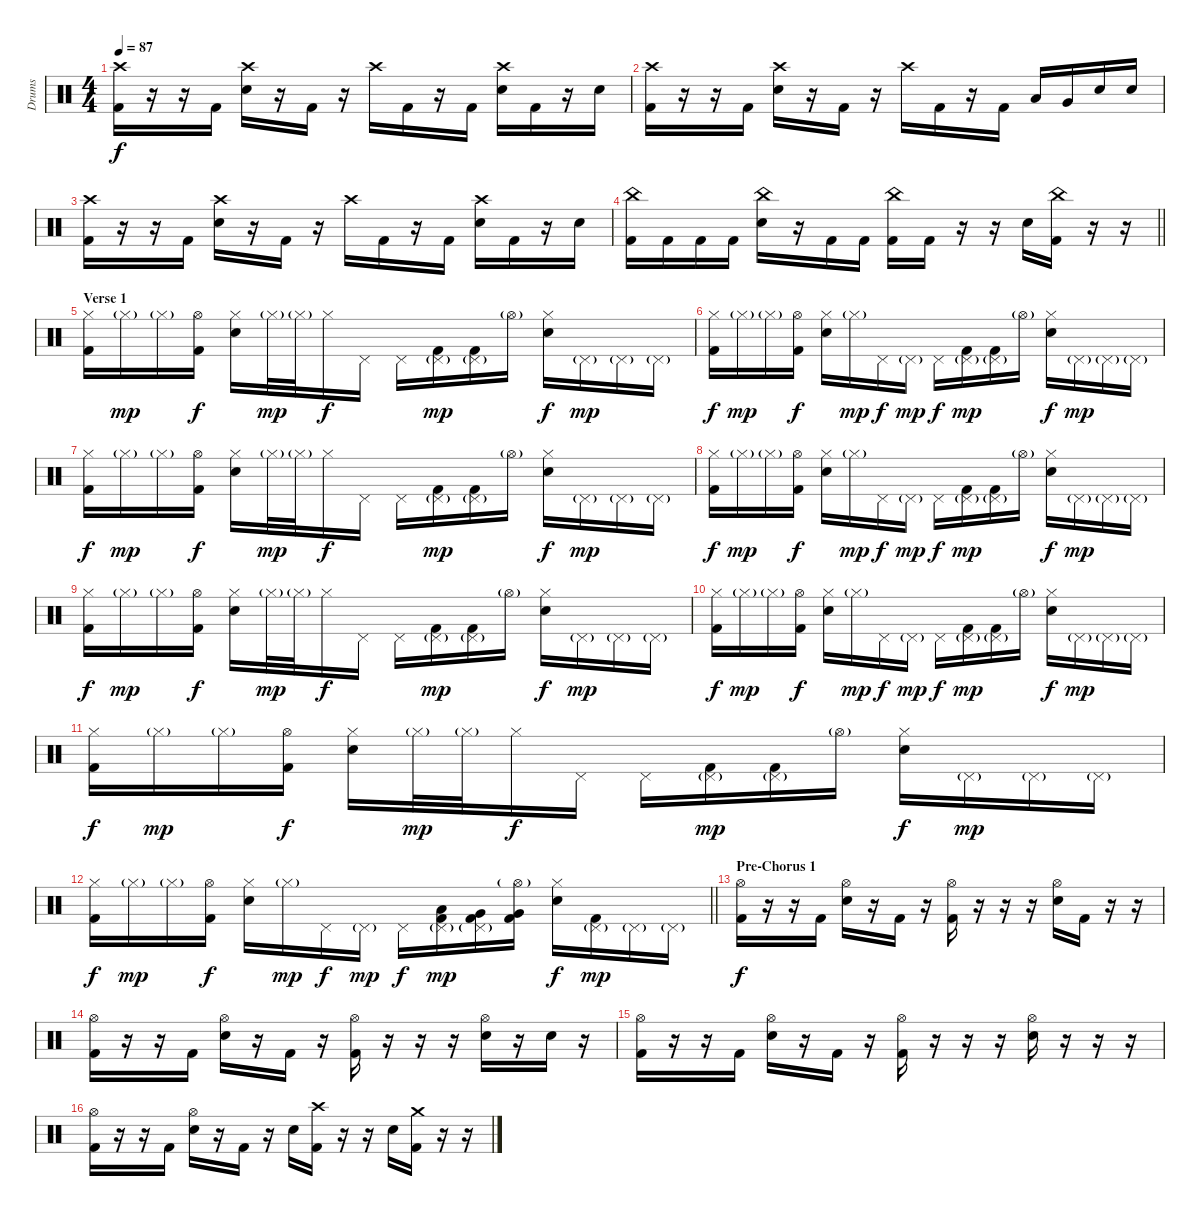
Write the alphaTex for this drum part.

\track ("Drums" "Drums") {instrument percussion}
\staff {score}
\articulation defaults
\ts (4 4)
\tempo 87
\clef neutral
\ks c
("Crash high (hit)" "Kick (hit) 2").16{dy f} r.16 r.16 "Kick (hit) 2".16 ("Crash high (hit)" "Electric Snare (hit)").16 r.16 "Kick (hit) 2".16 r.16 "Crash high (hit)".16 "Kick (hit) 2".16 r.16 "Kick (hit) 2".16 ("Crash high (hit)" "Electric Snare (hit)").16 "Kick (hit) 2".16 r.16 "Electric Snare (hit)".16 |
("Crash high (hit)" "Kick (hit) 2").16 r.16 r.16 "Kick (hit) 2".16 ("Crash high (hit)" "Electric Snare (hit)").16 r.16 "Kick (hit) 2".16 r.16 "Crash high (hit)".16 "Kick (hit) 2".16 r.16 "Kick (hit) 2".16 "Low Tom (hit)".16 "Very Low Tom (hit)".16 "Electric Snare (hit)".16 "Electric Snare (hit)".16 |
("Crash high (hit)" "Kick (hit) 2").16 r.16 r.16 "Kick (hit) 2".16 ("Crash high (hit)" "Electric Snare (hit)").16 r.16 "Kick (hit) 2".16 r.16 "Crash high (hit)".16 "Kick (hit) 2".16 r.16 "Kick (hit) 2".16 ("Crash high (hit)" "Electric Snare (hit)").16 "Kick (hit) 2".16 r.16 "Electric Snare (hit)".16 |
\barLineRight lightlight
("China (hit)" "Kick (hit) 2").16 "Kick (hit) 2".16 "Kick (hit) 2".16 "Kick (hit) 2".16 ("China (hit)" "Electric Snare (hit)").16 r.16 "Kick (hit) 2".16 "Kick (hit) 2".16 ("China (hit)" "Kick (hit) 2").16 "Kick (hit) 2".16 r.16 r.16 "Electric Snare (hit)".16 ("China (hit)" "Kick (hit) 2").16 r.16 r.16 |
\section ("" "Verse 1")
("Hi-Hat (closed)" "Kick (hit) 2").16 "Hi-Hat (closed)"{g}.16{dy mp} "Hi-Hat (closed)"{g}.16 ("Hi-Hat (open)" "Kick (hit) 2").16{dy f} ("Hi-Hat (closed)" "Electric Snare (hit)").16 "Hi-Hat (closed)"{g}.32{dy mp} "Hi-Hat (closed)"{g}.32 "Hi-Hat (closed)".16{dy f} "Pedal Hi-Hat (hit)".16 "Pedal Hi-Hat (hit)".16 ("Pedal Hi-Hat (hit)"{g} "Kick (hit) 2").16{dy mp} ("Pedal Hi-Hat (hit)"{g} "Kick (hit) 2").16 "Hi-Hat (open)"{g}.16 ("Hi-Hat (closed)" "Electric Snare (hit)").16{dy f} "Pedal Hi-Hat (hit)"{g}.16{dy mp} "Pedal Hi-Hat (hit)"{g}.16 "Pedal Hi-Hat (hit)"{g}.16 |
("Hi-Hat (closed)" "Kick (hit) 2").16{dy f} "Hi-Hat (closed)"{g}.16{dy mp} "Hi-Hat (closed)"{g}.16 ("Hi-Hat (open)" "Kick (hit) 2").16{dy f} ("Hi-Hat (closed)" "Electric Snare (hit)").16 "Hi-Hat (closed)"{g}.16{dy mp} "Pedal Hi-Hat (hit)".16{dy f} "Pedal Hi-Hat (hit)"{g}.16{dy mp} "Pedal Hi-Hat (hit)".16{dy f} ("Pedal Hi-Hat (hit)"{g} "Kick (hit) 2").16{dy mp} ("Pedal Hi-Hat (hit)"{g} "Kick (hit) 2").16 "Hi-Hat (open)"{g}.16 ("Hi-Hat (closed)" "Electric Snare (hit)").16{dy f} "Pedal Hi-Hat (hit)"{g}.16{dy mp} "Pedal Hi-Hat (hit)"{g}.16 "Pedal Hi-Hat (hit)"{g}.16 |
("Hi-Hat (closed)" "Kick (hit) 2").16{dy f} "Hi-Hat (closed)"{g}.16{dy mp} "Hi-Hat (closed)"{g}.16 ("Hi-Hat (open)" "Kick (hit) 2").16{dy f} ("Hi-Hat (closed)" "Electric Snare (hit)").16 "Hi-Hat (closed)"{g}.32{dy mp} "Hi-Hat (closed)"{g}.32 "Hi-Hat (closed)".16{dy f} "Pedal Hi-Hat (hit)".16 "Pedal Hi-Hat (hit)".16 ("Pedal Hi-Hat (hit)"{g} "Kick (hit) 2").16{dy mp} ("Pedal Hi-Hat (hit)"{g} "Kick (hit) 2").16 "Hi-Hat (open)"{g}.16 ("Hi-Hat (closed)" "Electric Snare (hit)").16{dy f} "Pedal Hi-Hat (hit)"{g}.16{dy mp} "Pedal Hi-Hat (hit)"{g}.16 "Pedal Hi-Hat (hit)"{g}.16 |
("Hi-Hat (closed)" "Kick (hit) 2").16{dy f} "Hi-Hat (closed)"{g}.16{dy mp} "Hi-Hat (closed)"{g}.16 ("Hi-Hat (open)" "Kick (hit) 2").16{dy f} ("Hi-Hat (closed)" "Electric Snare (hit)").16 "Hi-Hat (closed)"{g}.16{dy mp} "Pedal Hi-Hat (hit)".16{dy f} "Pedal Hi-Hat (hit)"{g}.16{dy mp} "Pedal Hi-Hat (hit)".16{dy f} ("Pedal Hi-Hat (hit)"{g} "Kick (hit) 2").16{dy mp} ("Pedal Hi-Hat (hit)"{g} "Kick (hit) 2").16 "Hi-Hat (open)"{g}.16 ("Hi-Hat (closed)" "Electric Snare (hit)").16{dy f} "Pedal Hi-Hat (hit)"{g}.16{dy mp} "Pedal Hi-Hat (hit)"{g}.16 "Pedal Hi-Hat (hit)"{g}.16 |
("Hi-Hat (closed)" "Kick (hit) 2").16{dy f} "Hi-Hat (closed)"{g}.16{dy mp} "Hi-Hat (closed)"{g}.16 ("Hi-Hat (open)" "Kick (hit) 2").16{dy f} ("Hi-Hat (closed)" "Electric Snare (hit)").16 "Hi-Hat (closed)"{g}.32{dy mp} "Hi-Hat (closed)"{g}.32 "Hi-Hat (closed)".16{dy f} "Pedal Hi-Hat (hit)".16 "Pedal Hi-Hat (hit)".16 ("Pedal Hi-Hat (hit)"{g} "Kick (hit) 2").16{dy mp} ("Pedal Hi-Hat (hit)"{g} "Kick (hit) 2").16 "Hi-Hat (open)"{g}.16 ("Hi-Hat (closed)" "Electric Snare (hit)").16{dy f} "Pedal Hi-Hat (hit)"{g}.16{dy mp} "Pedal Hi-Hat (hit)"{g}.16 "Pedal Hi-Hat (hit)"{g}.16 |
("Hi-Hat (closed)" "Kick (hit) 2").16{dy f} "Hi-Hat (closed)"{g}.16{dy mp} "Hi-Hat (closed)"{g}.16 ("Hi-Hat (open)" "Kick (hit) 2").16{dy f} ("Hi-Hat (closed)" "Electric Snare (hit)").16 "Hi-Hat (closed)"{g}.16{dy mp} "Pedal Hi-Hat (hit)".16{dy f} "Pedal Hi-Hat (hit)"{g}.16{dy mp} "Pedal Hi-Hat (hit)".16{dy f} ("Pedal Hi-Hat (hit)"{g} "Kick (hit) 2").16{dy mp} ("Pedal Hi-Hat (hit)"{g} "Kick (hit) 2").16 "Hi-Hat (open)"{g}.16 ("Hi-Hat (closed)" "Electric Snare (hit)").16{dy f} "Pedal Hi-Hat (hit)"{g}.16{dy mp} "Pedal Hi-Hat (hit)"{g}.16 "Pedal Hi-Hat (hit)"{g}.16 |
("Hi-Hat (closed)" "Kick (hit) 2").16{dy f} "Hi-Hat (closed)"{g}.16{dy mp} "Hi-Hat (closed)"{g}.16 ("Hi-Hat (open)" "Kick (hit) 2").16{dy f} ("Hi-Hat (closed)" "Electric Snare (hit)").16 "Hi-Hat (closed)"{g}.32{dy mp} "Hi-Hat (closed)"{g}.32 "Hi-Hat (closed)".16{dy f} "Pedal Hi-Hat (hit)".16 "Pedal Hi-Hat (hit)".16 ("Pedal Hi-Hat (hit)"{g} "Kick (hit) 2").16{dy mp} ("Pedal Hi-Hat (hit)"{g} "Kick (hit) 2").16 "Hi-Hat (open)"{g}.16 ("Hi-Hat (closed)" "Electric Snare (hit)").16{dy f} "Pedal Hi-Hat (hit)"{g}.16{dy mp} "Pedal Hi-Hat (hit)"{g}.16 "Pedal Hi-Hat (hit)"{g}.16 |
\barLineRight lightlight
("Hi-Hat (closed)" "Kick (hit) 2").16{dy f} "Hi-Hat (closed)"{g}.16{dy mp} "Hi-Hat (closed)"{g}.16 ("Hi-Hat (open)" "Kick (hit) 2").16{dy f} ("Hi-Hat (closed)" "Electric Snare (hit)").16 "Hi-Hat (closed)"{g}.16{dy mp} "Pedal Hi-Hat (hit)".16{dy f} "Pedal Hi-Hat (hit)"{g}.16{dy mp} "Pedal Hi-Hat (hit)".16{dy f} ("Pedal Hi-Hat (hit)"{g} "Low Tom (hit)" "Kick (hit) 2").16{dy mp} ("Pedal Hi-Hat (hit)"{g} "Very Low Tom (hit)" "Kick (hit) 2").16 ("Hi-Hat (open)"{g} "Very Low Tom (hit)" "Kick (hit) 2").16 ("Hi-Hat (closed)" "Electric Snare (hit)").16{dy f} ("Pedal Hi-Hat (hit)"{g} "Kick (hit) 2").16{dy mp} "Pedal Hi-Hat (hit)"{g}.16 "Pedal Hi-Hat (hit)"{g}.16 |
\section ("" "Pre-Chorus 1")
("Hi-Hat (open)" "Kick (hit) 2").16{dy f} r.16 r.16 "Kick (hit) 2".16 ("Hi-Hat (open)" "Electric Snare (hit)").16 r.16 "Kick (hit) 2".16 r.16 ("Hi-Hat (open)" "Kick (hit) 2").16 r.16 r.16 r.16 ("Hi-Hat (open)" "Electric Snare (hit)").16 "Kick (hit) 2".16 r.16 r.16 |
("Hi-Hat (open)" "Kick (hit) 2").16 r.16 r.16 "Kick (hit) 2".16 ("Hi-Hat (open)" "Electric Snare (hit)").16 r.16 "Kick (hit) 2".16 r.16 ("Hi-Hat (open)" "Kick (hit) 2").16 r.16 r.16 r.16 ("Hi-Hat (open)" "Electric Snare (hit)").16 r.16 "Electric Snare (hit)".16 r.16 |
("Hi-Hat (open)" "Kick (hit) 2").16 r.16 r.16 "Kick (hit) 2".16 ("Hi-Hat (open)" "Electric Snare (hit)").16 r.16 "Kick (hit) 2".16 r.16 ("Hi-Hat (open)" "Kick (hit) 2").16 r.16 r.16 r.16 ("Hi-Hat (open)" "Electric Snare (hit)").16 r.16 r.16 r.16 |
("Hi-Hat (open)" "Kick (hit) 2").16 r.16 r.16 "Kick (hit) 2".16 ("Hi-Hat (open)" "Electric Snare (hit)").16 r.16 "Kick (hit) 2".16 r.16 "Electric Snare (hit)".16 ("Crash high (hit)" "Kick (hit) 2").16 r.16 r.16 "Electric Snare (hit)".16 ("Crash medium (hit)" "Kick (hit) 2").16 r.16 r.16
